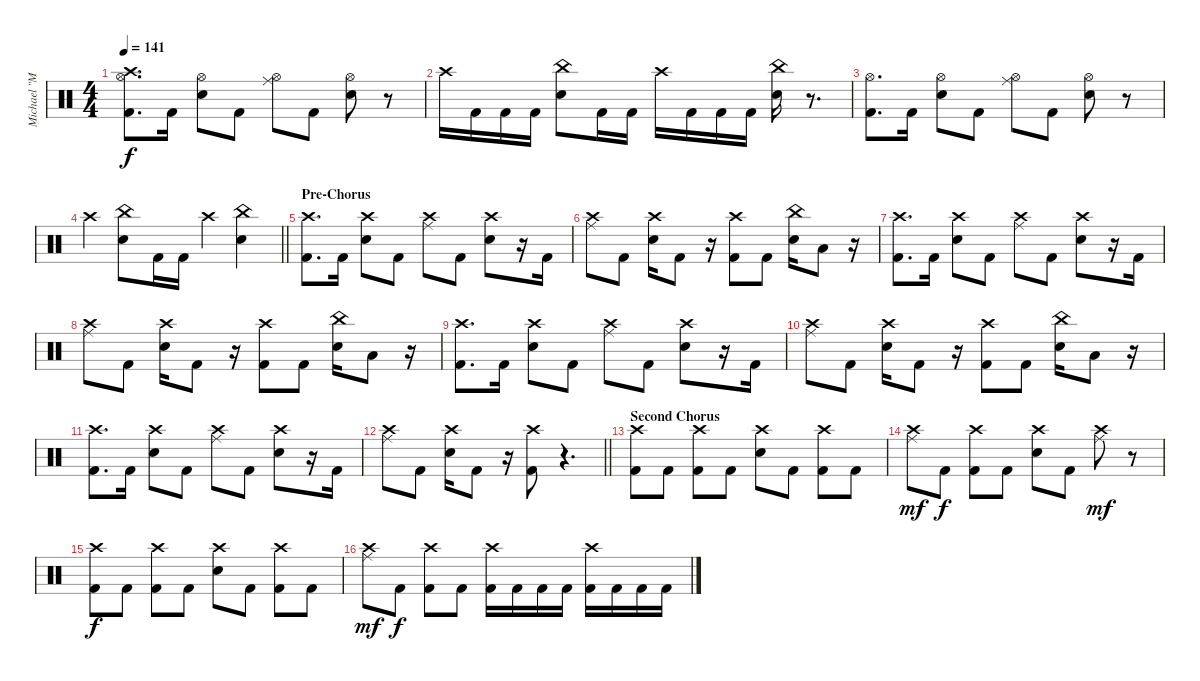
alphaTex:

\track ("Michael \"Moose\" Thomas" "Michael \"M") {instrument percussion}
\staff {score}
\articulation defaults
\ts (4 4)
\tempo 141
\clef neutral
\ks c
("Crash high (hit)" "Hi-Hat (open)" "Kick (hit) 2").8{d dy f} "Kick (hit) 2".16 ("Hi-Hat (open)" "Snare (hit) 2").8 "Kick (hit) 2".8 ("Hi-Hat (open)" "Ride (middle)").8 "Kick (hit) 2".8 ("Hi-Hat (open)" "Snare (hit) 2").8 r.8 |
"Crash high (hit)".16 "Kick (hit) 2".16 "Kick (hit) 2".16 "Kick (hit) 2".16 ("China (hit)" "Snare (hit) 2").8 "Kick (hit) 2".16 "Kick (hit) 2".16 "Crash high (hit)".16 "Kick (hit) 2".16 "Kick (hit) 2".16 "Kick (hit) 2".16 ("China (hit)" "Snare (hit) 2").16 r.8{d} |
("Hi-Hat (open)" "Kick (hit) 2").8{d} "Kick (hit) 2".16 ("Hi-Hat (open)" "Snare (hit) 2").8 "Kick (hit) 2".8 ("Hi-Hat (open)" "Ride (middle)").8 "Kick (hit) 2".8 ("Hi-Hat (open)" "Snare (hit) 2").8 r.8 |
\barLineRight lightlight "Crash high (hit)".4
("China (hit)" "Snare (hit) 2").8 "Kick (hit) 2".16 "Kick (hit) 2".16 "Crash high (hit)".4 ("China (hit)" "Snare (hit) 2").4 |
\section ("" "Pre-Chorus")
("Crash high (hit)" "Kick (hit) 2").8{d} "Kick (hit) 2".16 ("Crash high (hit)" "Snare (hit) 2").8 "Kick (hit) 2".8 ("Crash high (hit)" "Ride (middle)").8 "Kick (hit) 2".8 ("Crash high (hit)" "Snare (hit) 2").8 r.16 "Kick (hit) 2".16 |
("Crash high (hit)" "Ride (middle)").8 "Kick (hit) 2".8 ("Crash high (hit)" "Snare (hit) 2").16 "Kick (hit) 2".8 r.16 ("Crash high (hit)" "Kick (hit) 2").8 "Kick (hit) 2".8 ("China (hit)" "Snare (hit) 2").16 "Low Floor Tom (hit)".8 r.16 |
("Crash high (hit)" "Kick (hit) 2").8{d} "Kick (hit) 2".16 ("Crash high (hit)" "Snare (hit) 2").8 "Kick (hit) 2".8 ("Crash high (hit)" "Ride (middle)").8 "Kick (hit) 2".8 ("Crash high (hit)" "Snare (hit) 2").8 r.16 "Kick (hit) 2".16 |
("Crash high (hit)" "Ride (middle)").8 "Kick (hit) 2".8 ("Crash high (hit)" "Snare (hit) 2").16 "Kick (hit) 2".8 r.16 ("Crash high (hit)" "Kick (hit) 2").8 "Kick (hit) 2".8 ("China (hit)" "Snare (hit) 2").16 "Low Floor Tom (hit)".8 r.16 |
("Crash high (hit)" "Kick (hit) 2").8{d} "Kick (hit) 2".16 ("Crash high (hit)" "Snare (hit) 2").8 "Kick (hit) 2".8 ("Crash high (hit)" "Ride (middle)").8 "Kick (hit) 2".8 ("Crash high (hit)" "Snare (hit) 2").8 r.16 "Kick (hit) 2".16 |
("Crash high (hit)" "Ride (middle)").8 "Kick (hit) 2".8 ("Crash high (hit)" "Snare (hit) 2").16 "Kick (hit) 2".8 r.16 ("Crash high (hit)" "Kick (hit) 2").8 "Kick (hit) 2".8 ("China (hit)" "Snare (hit) 2").16 "Low Floor Tom (hit)".8 r.16 |
("Crash high (hit)" "Kick (hit) 2").8{d} "Kick (hit) 2".16 ("Crash high (hit)" "Snare (hit) 2").8 "Kick (hit) 2".8 ("Crash high (hit)" "Ride (middle)").8 "Kick (hit) 2".8 ("Crash high (hit)" "Snare (hit) 2").8 r.16 "Kick (hit) 2".16 |
\barLineRight lightlight
("Crash high (hit)" "Ride (middle)").8 "Kick (hit) 2".8 ("Crash high (hit)" "Snare (hit) 2").16 "Kick (hit) 2".8 r.16 ("Crash high (hit)" "Kick (hit) 2").8 r.4{d} |
\section ("" "Second Chorus")
("Crash high (hit)" "Kick (hit) 2").8 "Kick (hit) 2".8 ("Crash high (hit)" "Kick (hit) 2").8 "Kick (hit) 2".8 ("Crash high (hit)" "Snare (hit) 2").8 "Kick (hit) 2".8 ("Crash high (hit)" "Kick (hit) 2").8 "Kick (hit) 2".8 |
("Crash high (hit)" "Ride (middle)").8{dy mf} "Kick (hit) 2".8{dy f} ("Crash high (hit)" "Kick (hit) 2").8 "Kick (hit) 2".8 ("Crash high (hit)" "Snare (hit) 2").8 "Kick (hit) 2".8 ("Crash high (hit)" "Ride (middle)").8{dy mf} r.8 |
("Crash high (hit)" "Kick (hit) 2").8{dy f} "Kick (hit) 2".8 ("Crash high (hit)" "Kick (hit) 2").8 "Kick (hit) 2".8 ("Crash high (hit)" "Snare (hit) 2").8 "Kick (hit) 2".8 ("Crash high (hit)" "Kick (hit) 2").8 "Kick (hit) 2".8 |
("Crash high (hit)" "Ride (middle)").8{dy mf} "Kick (hit) 2".8{dy f} ("Crash high (hit)" "Kick (hit) 2").8 "Kick (hit) 2".8 ("Crash high (hit)" "Kick (hit) 2").16 "Kick (hit) 2".16 "Kick (hit) 2".16 "Kick (hit) 2".16 ("Crash high (hit)" "Kick (hit) 2").16 "Kick (hit) 2".16 "Kick (hit) 2".16 "Kick (hit) 2".16
